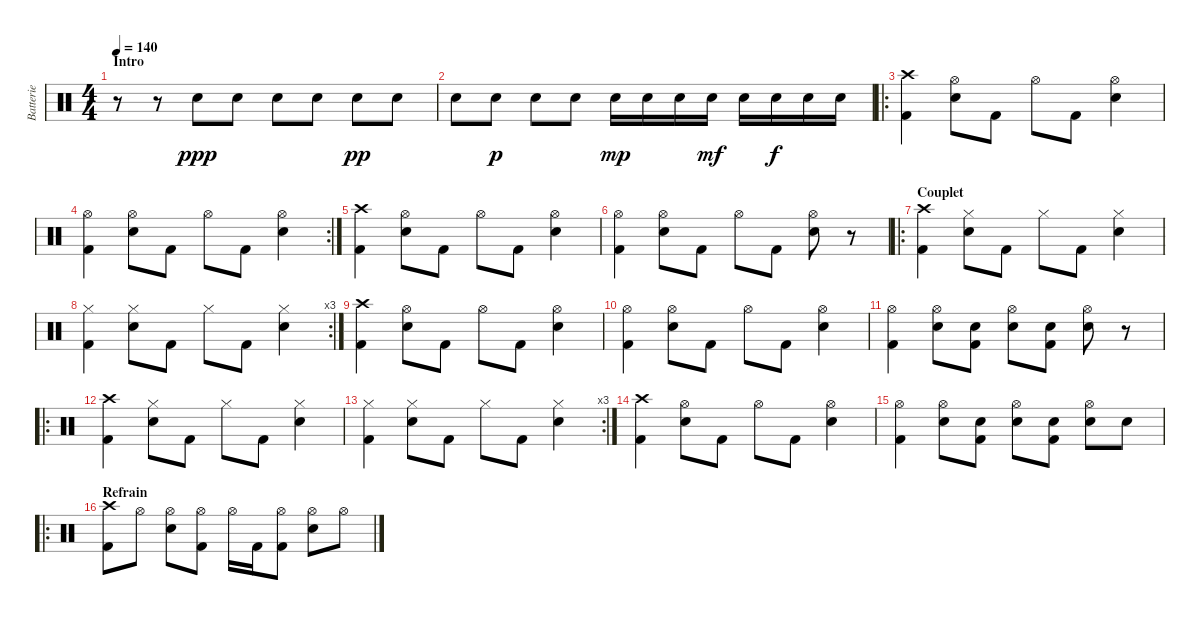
\track ("Batterie" "Batterie") {instrument percussion}
\staff {score}
\articulation defaults
\ts (4 4)
\section ("" "Intro")
\tempo 140
\clef neutral
\ks c
r.8{dy ppp} r.8 "Electric Snare (hit)".8 "Electric Snare (hit)".8 "Electric Snare (hit)".8 "Electric Snare (hit)".8 "Electric Snare (hit)".8{dy pp} "Electric Snare (hit)".8 |
"Electric Snare (hit)".8 "Electric Snare (hit)".8{dy p} "Electric Snare (hit)".8 "Electric Snare (hit)".8 "Electric Snare (hit)".16{dy mp} "Electric Snare (hit)".16 "Electric Snare (hit)".16 "Electric Snare (hit)".16{dy mf} "Electric Snare (hit)".16 "Electric Snare (hit)".16{dy f} "Electric Snare (hit)".16 "Electric Snare (hit)".16 |
\ro
("Crash high (hit)" "Kick (hit) 2").4 ("Electric Snare (hit)" "Hi-Hat (open)").8 "Kick (hit) 2".8 "Hi-Hat (open)".8 "Kick (hit) 2".8 ("Electric Snare (hit)" "Hi-Hat (open)").4 |
\rc 2
("Hi-Hat (open)" "Kick (hit) 2").4 ("Electric Snare (hit)" "Hi-Hat (open)").8 "Kick (hit) 2".8 "Hi-Hat (open)".8 "Kick (hit) 2".8 ("Electric Snare (hit)" "Hi-Hat (open)").4 |
("Crash high (hit)" "Kick (hit) 2").4 ("Electric Snare (hit)" "Hi-Hat (open)").8 "Kick (hit) 2".8 "Hi-Hat (open)".8 "Kick (hit) 2".8 ("Electric Snare (hit)" "Hi-Hat (open)").4 |
("Hi-Hat (open)" "Kick (hit) 2").4 ("Electric Snare (hit)" "Hi-Hat (open)").8 "Kick (hit) 2".8 "Hi-Hat (open)".8 "Kick (hit) 2".8 ("Electric Snare (hit)" "Hi-Hat (open)").8 r.8 |
\ro
\section ("" "Couplet")
("Crash high (hit)" "Kick (hit) 2").4 ("Electric Snare (hit)" "Hi-Hat (closed)").8 "Kick (hit) 2".8 "Hi-Hat (closed)".8 "Kick (hit) 2".8 ("Electric Snare (hit)" "Hi-Hat (closed)").4 |
\rc 3
("Hi-Hat (closed)" "Kick (hit) 2").4 ("Electric Snare (hit)" "Hi-Hat (closed)").8 "Kick (hit) 2".8 "Hi-Hat (closed)".8 "Kick (hit) 2".8 ("Electric Snare (hit)" "Hi-Hat (closed)").4 |
("Crash high (hit)" "Kick (hit) 2").4 ("Electric Snare (hit)" "Hi-Hat (open)").8 "Kick (hit) 2".8 "Hi-Hat (open)".8 "Kick (hit) 2".8 ("Electric Snare (hit)" "Hi-Hat (open)").4 |
("Hi-Hat (open)" "Kick (hit) 2").4 ("Electric Snare (hit)" "Hi-Hat (open)").8 "Kick (hit) 2".8 "Hi-Hat (open)".8 "Kick (hit) 2".8 ("Electric Snare (hit)" "Hi-Hat (open)").4 |
("Hi-Hat (open)" "Kick (hit) 2").4 ("Electric Snare (hit)" "Hi-Hat (open)").8 ("Electric Snare (hit)" "Kick (hit) 2").8 ("Electric Snare (hit)" "Hi-Hat (open)").8 ("Electric Snare (hit)" "Kick (hit) 2").8 ("Electric Snare (hit)" "Hi-Hat (open)").8 r.8 |
\ro
("Crash high (hit)" "Kick (hit) 2").4 ("Electric Snare (hit)" "Hi-Hat (closed)").8 "Kick (hit) 2".8 "Hi-Hat (closed)".8 "Kick (hit) 2".8 ("Electric Snare (hit)" "Hi-Hat (closed)").4 |
\rc 3
("Hi-Hat (closed)" "Kick (hit) 2").4 ("Electric Snare (hit)" "Hi-Hat (closed)").8 "Kick (hit) 2".8 "Hi-Hat (closed)".8 "Kick (hit) 2".8 ("Electric Snare (hit)" "Hi-Hat (closed)").4 |
("Crash high (hit)" "Kick (hit) 2").4 ("Electric Snare (hit)" "Hi-Hat (open)").8 "Kick (hit) 2".8 "Hi-Hat (open)".8 "Kick (hit) 2".8 ("Electric Snare (hit)" "Hi-Hat (open)").4 |
("Hi-Hat (open)" "Kick (hit) 2").4 ("Electric Snare (hit)" "Hi-Hat (open)").8 ("Electric Snare (hit)" "Kick (hit) 2").8 ("Electric Snare (hit)" "Hi-Hat (open)").8 ("Electric Snare (hit)" "Kick (hit) 2").8 ("Electric Snare (hit)" "Hi-Hat (open)").8 "Electric Snare (hit)".8 |
\ro
\section ("" "Refrain")
("Crash high (hit)" "Kick (hit) 2").8 "Hi-Hat (open)".8 ("Electric Snare (hit)" "Hi-Hat (open)").8 ("Hi-Hat (open)" "Kick (hit) 2").8 "Hi-Hat (open)".16 "Kick (hit) 2".16 ("Hi-Hat (open)" "Kick (hit) 2").8 ("Electric Snare (hit)" "Hi-Hat (open)").8 "Hi-Hat (open)".8
